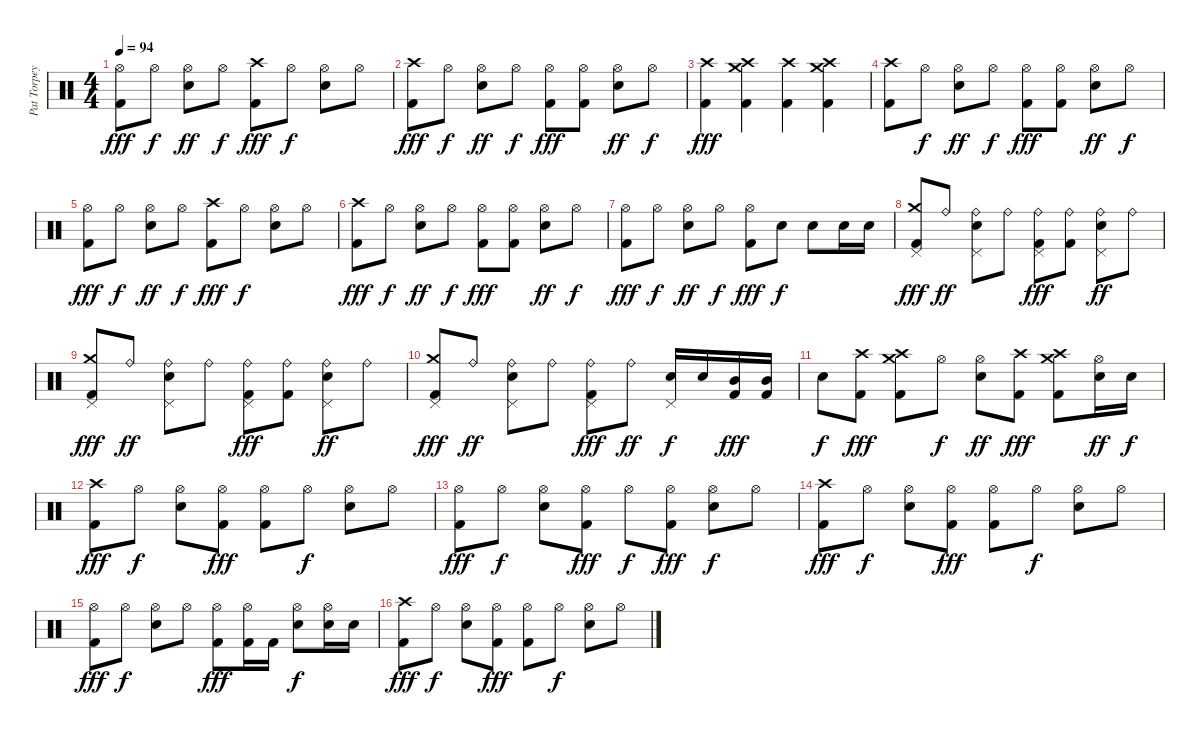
\track ("Pat Torpey (Toro)" "Pat Torpey") {instrument percussion}
\staff {score}
\articulation defaults
\ts (4 4)
\tempo 94
\clef neutral
\ks c
("Hi-Hat (open)" "Kick (hit) 2").8{dy fff} "Hi-Hat (open)".8{dy f} ("Hi-Hat (open)" "Snare (hit) 2").8{dy ff} "Hi-Hat (open)".8{dy f} ("Crash high (hit)" "Kick (hit) 2").8{dy fff} "Hi-Hat (open)".8{dy f} ("Hi-Hat (open)" "Snare (hit) 2").8 "Hi-Hat (open)".8 |
("Crash high (hit)" "Kick (hit) 2").8{dy fff} "Hi-Hat (open)".8{dy f} ("Hi-Hat (open)" "Snare (hit) 2").8{dy ff} "Hi-Hat (open)".8{dy f} ("Hi-Hat (open)" "Kick (hit) 2").8{dy fff} ("Hi-Hat (open)" "Kick (hit) 2").8 ("Hi-Hat (open)" "Snare (hit) 2").8{dy ff} "Hi-Hat (open)".8{dy f} |
("Crash high (hit)" "Kick (hit) 2").4{dy fff} ("Crash high (hit)" "Crash medium (hit)" "Kick (hit) 2").4 ("Crash high (hit)" "Kick (hit) 2").4 ("Crash high (hit)" "Crash medium (hit)" "Kick (hit) 2").4 |
("Crash high (hit)" "Kick (hit) 2").8 "Hi-Hat (open)".8{dy f} ("Hi-Hat (open)" "Snare (hit) 2").8{dy ff} "Hi-Hat (open)".8{dy f} ("Hi-Hat (open)" "Kick (hit) 2").8{dy fff} ("Hi-Hat (open)" "Kick (hit) 2").8 ("Hi-Hat (open)" "Snare (hit) 2").8{dy ff} "Hi-Hat (open)".8{dy f} |
("Hi-Hat (open)" "Kick (hit) 2").8{dy fff} "Hi-Hat (open)".8{dy f} ("Hi-Hat (open)" "Snare (hit) 2").8{dy ff} "Hi-Hat (open)".8{dy f} ("Crash high (hit)" "Kick (hit) 2").8{dy fff} "Hi-Hat (open)".8{dy f} ("Hi-Hat (open)" "Snare (hit) 2").8 "Hi-Hat (open)".8 |
("Crash high (hit)" "Kick (hit) 2").8{dy fff} "Hi-Hat (open)".8{dy f} ("Hi-Hat (open)" "Snare (hit) 2").8{dy ff} "Hi-Hat (open)".8{dy f} ("Hi-Hat (open)" "Kick (hit) 2").8{dy fff} ("Hi-Hat (open)" "Kick (hit) 2").8 ("Hi-Hat (open)" "Snare (hit) 2").8{dy ff} "Hi-Hat (open)".8{dy f} |
("Hi-Hat (open)" "Kick (hit) 2").8{dy fff} "Hi-Hat (open)".8{dy f} ("Hi-Hat (open)" "Snare (hit) 2").8{dy ff} "Hi-Hat (open)".8{dy f} ("Hi-Hat (open)" "Kick (hit) 2").8{dy fff} "Snare (hit) 2".8{dy f} "Snare (hit) 2".8 "Snare (hit) 2".16 "Snare (hit) 2".16 |
("Crash medium (hit)" "Kick (hit) 2" "Pedal Hi-Hat (hit)").8{dy fff} "Ride (bell)".8{dy ff} ("Ride (bell)" "Snare (hit) 2" "Pedal Hi-Hat (hit)").8 "Ride (bell)".8 ("Ride (bell)" "Kick (hit) 2" "Pedal Hi-Hat (hit)").8{dy fff} ("Ride (bell)" "Kick (hit) 2").8 ("Ride (bell)" "Snare (hit) 2" "Pedal Hi-Hat (hit)").8{dy ff} "Ride (bell)".8 |
("Crash medium (hit)" "Kick (hit) 2" "Pedal Hi-Hat (hit)").8{dy fff} "Ride (bell)".8{dy ff} ("Ride (bell)" "Snare (hit) 2" "Pedal Hi-Hat (hit)").8 "Ride (bell)".8 ("Ride (bell)" "Kick (hit) 2" "Pedal Hi-Hat (hit)").8{dy fff} ("Ride (bell)" "Kick (hit) 2").8 ("Ride (bell)" "Snare (hit) 2" "Pedal Hi-Hat (hit)").8{dy ff} "Ride (bell)".8 |
("Crash medium (hit)" "Kick (hit) 2" "Pedal Hi-Hat (hit)").8{dy fff} "Ride (bell)".8{dy ff} ("Ride (bell)" "Snare (hit) 2" "Pedal Hi-Hat (hit)").8 "Ride (bell)".8 ("Ride (bell)" "Kick (hit) 2" "Pedal Hi-Hat (hit)").8{dy fff} "Ride (bell)".8{dy ff} ("Snare (hit) 2" "Pedal Hi-Hat (hit)").16{dy f} "Snare (hit) 2".16 ("Mid Tom (hit)" "Kick (hit) 2").16{dy fff} ("Mid Tom (hit)" "Kick (hit) 2").16 |
"Snare (hit) 2".8{dy f} ("Crash high (hit)" "Kick (hit) 2").8{dy fff} ("Crash high (hit)" "Crash medium (hit)" "Kick (hit) 2").8 "Hi-Hat (open)".8{dy f} ("Hi-Hat (open)" "Snare (hit) 2").8{dy ff} ("Crash high (hit)" "Kick (hit) 2").8{dy fff} ("Crash high (hit)" "Crash medium (hit)" "Kick (hit) 2").8 ("Hi-Hat (open)" "Snare (hit) 2").16{dy ff} "Snare (hit) 2".16{dy f} |
("Crash high (hit)" "Kick (hit) 2").8{dy fff} "Hi-Hat (open)".8{dy f} ("Hi-Hat (open)" "Snare (hit) 2").8 ("Hi-Hat (open)" "Kick (hit) 2").8{dy fff} ("Hi-Hat (open)" "Kick (hit) 2").8 "Hi-Hat (open)".8{dy f} ("Hi-Hat (open)" "Snare (hit) 2").8 "Hi-Hat (open)".8 |
("Hi-Hat (open)" "Kick (hit) 2").8{dy fff} "Hi-Hat (open)".8{dy f} ("Hi-Hat (open)" "Snare (hit) 2").8 ("Hi-Hat (open)" "Kick (hit) 2").8{dy fff} "Hi-Hat (open)".8{dy f} ("Hi-Hat (open)" "Kick (hit) 2").8{dy fff} ("Hi-Hat (open)" "Snare (hit) 2").8{dy f} "Hi-Hat (open)".8 |
("Crash high (hit)" "Kick (hit) 2").8{dy fff} "Hi-Hat (open)".8{dy f} ("Hi-Hat (open)" "Snare (hit) 2").8 ("Hi-Hat (open)" "Kick (hit) 2").8{dy fff} ("Hi-Hat (open)" "Kick (hit) 2").8 "Hi-Hat (open)".8{dy f} ("Hi-Hat (open)" "Snare (hit) 2").8 "Hi-Hat (open)".8 |
("Hi-Hat (open)" "Kick (hit) 2").8{dy fff} "Hi-Hat (open)".8{dy f} ("Hi-Hat (open)" "Snare (hit) 2").8 "Hi-Hat (open)".8 ("Hi-Hat (open)" "Kick (hit) 2").8{dy fff} ("Hi-Hat (open)" "Kick (hit) 2").16 "Kick (hit) 2".16 ("Hi-Hat (open)" "Snare (hit) 2").8{dy f} ("Hi-Hat (open)" "Snare (hit) 2").16 "Snare (hit) 2".16 |
("Crash high (hit)" "Kick (hit) 2").8{dy fff} "Hi-Hat (open)".8{dy f} ("Hi-Hat (open)" "Snare (hit) 2").8 ("Hi-Hat (open)" "Kick (hit) 2").8{dy fff} ("Hi-Hat (open)" "Kick (hit) 2").8 "Hi-Hat (open)".8{dy f} ("Hi-Hat (open)" "Snare (hit) 2").8 "Hi-Hat (open)".8
